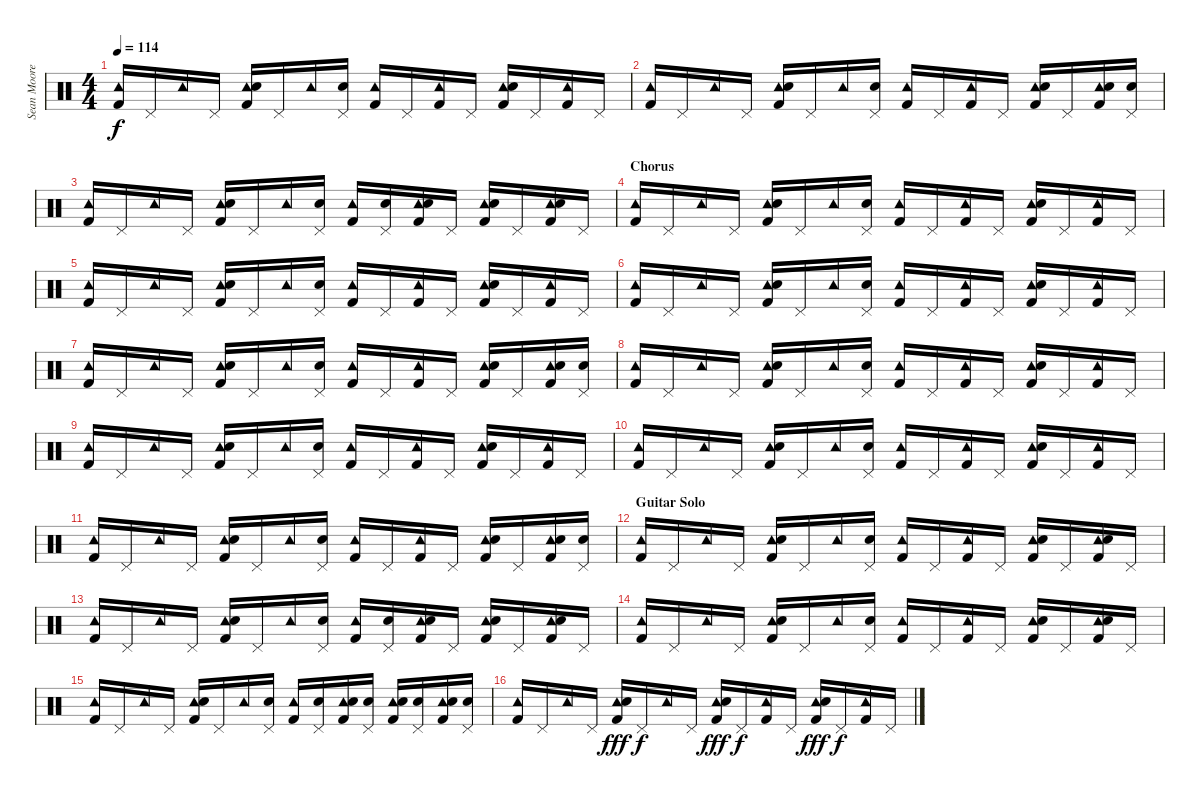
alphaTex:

\track ("Sean Moore" "Sean Moore") {instrument percussion}
\staff {score}
\articulation defaults
\ts (4 4)
\tempo 114
\clef neutral
\ks c
("Tambourine (hit)" "Kick (hit) 2").16{dy f} "Pedal Hi-Hat (hit)".16 "Tambourine (hit)".16 "Pedal Hi-Hat (hit)".16 ("Tambourine (hit)" "Snare (hit) 2" "Kick (hit) 2").16 "Pedal Hi-Hat (hit)".16 "Tambourine (hit)".16 ("Snare (hit) 2" "Pedal Hi-Hat (hit)").16 ("Tambourine (hit)" "Kick (hit) 2").16 "Pedal Hi-Hat (hit)".16 ("Tambourine (hit)" "Kick (hit) 2").16 "Pedal Hi-Hat (hit)".16 ("Tambourine (hit)" "Snare (hit) 2" "Kick (hit) 2").16 "Pedal Hi-Hat (hit)".16 ("Tambourine (hit)" "Kick (hit) 2").16 "Pedal Hi-Hat (hit)".16 |
("Tambourine (hit)" "Kick (hit) 2").16 "Pedal Hi-Hat (hit)".16 "Tambourine (hit)".16 "Pedal Hi-Hat (hit)".16 ("Tambourine (hit)" "Snare (hit) 2" "Kick (hit) 2").16 "Pedal Hi-Hat (hit)".16 "Tambourine (hit)".16 ("Snare (hit) 2" "Pedal Hi-Hat (hit)").16 ("Tambourine (hit)" "Kick (hit) 2").16 "Pedal Hi-Hat (hit)".16 ("Tambourine (hit)" "Kick (hit) 2").16 "Pedal Hi-Hat (hit)".16 ("Tambourine (hit)" "Snare (hit) 2" "Kick (hit) 2").16 "Pedal Hi-Hat (hit)".16 ("Tambourine (hit)" "Snare (hit) 2" "Kick (hit) 2").16 ("Snare (hit) 2" "Pedal Hi-Hat (hit)").16 |
("Tambourine (hit)" "Kick (hit) 2").16 "Pedal Hi-Hat (hit)".16 "Tambourine (hit)".16 "Pedal Hi-Hat (hit)".16 ("Tambourine (hit)" "Snare (hit) 2" "Kick (hit) 2").16 "Pedal Hi-Hat (hit)".16 "Tambourine (hit)".16 ("Snare (hit) 2" "Pedal Hi-Hat (hit)").16 ("Tambourine (hit)" "Kick (hit) 2").16 ("Snare (hit) 2" "Pedal Hi-Hat (hit)").16 ("Tambourine (hit)" "Snare (hit) 2" "Kick (hit) 2").16 "Pedal Hi-Hat (hit)".16 ("Tambourine (hit)" "Snare (hit) 2" "Kick (hit) 2").16 "Pedal Hi-Hat (hit)".16 ("Tambourine (hit)" "Snare (hit) 2" "Kick (hit) 2").16 "Pedal Hi-Hat (hit)".16 |
\section ("" "Chorus")
("Tambourine (hit)" "Kick (hit) 2").16 "Pedal Hi-Hat (hit)".16 "Tambourine (hit)".16 "Pedal Hi-Hat (hit)".16 ("Tambourine (hit)" "Snare (hit) 2" "Kick (hit) 2").16 "Pedal Hi-Hat (hit)".16 "Tambourine (hit)".16 ("Snare (hit) 2" "Pedal Hi-Hat (hit)").16 ("Tambourine (hit)" "Kick (hit) 2").16 "Pedal Hi-Hat (hit)".16 ("Tambourine (hit)" "Kick (hit) 2").16 "Pedal Hi-Hat (hit)".16 ("Tambourine (hit)" "Snare (hit) 2" "Kick (hit) 2").16 "Pedal Hi-Hat (hit)".16 ("Tambourine (hit)" "Kick (hit) 2").16 "Pedal Hi-Hat (hit)".16 |
("Tambourine (hit)" "Kick (hit) 2").16 "Pedal Hi-Hat (hit)".16 "Tambourine (hit)".16 "Pedal Hi-Hat (hit)".16 ("Tambourine (hit)" "Snare (hit) 2" "Kick (hit) 2").16 "Pedal Hi-Hat (hit)".16 "Tambourine (hit)".16 ("Snare (hit) 2" "Pedal Hi-Hat (hit)").16 ("Tambourine (hit)" "Kick (hit) 2").16 "Pedal Hi-Hat (hit)".16 ("Tambourine (hit)" "Kick (hit) 2").16 "Pedal Hi-Hat (hit)".16 ("Tambourine (hit)" "Snare (hit) 2" "Kick (hit) 2").16 "Pedal Hi-Hat (hit)".16 ("Tambourine (hit)" "Kick (hit) 2").16 "Pedal Hi-Hat (hit)".16 |
("Tambourine (hit)" "Kick (hit) 2").16 "Pedal Hi-Hat (hit)".16 "Tambourine (hit)".16 "Pedal Hi-Hat (hit)".16 ("Tambourine (hit)" "Snare (hit) 2" "Kick (hit) 2").16 "Pedal Hi-Hat (hit)".16 "Tambourine (hit)".16 ("Snare (hit) 2" "Pedal Hi-Hat (hit)").16 ("Tambourine (hit)" "Kick (hit) 2").16 "Pedal Hi-Hat (hit)".16 ("Tambourine (hit)" "Kick (hit) 2").16 "Pedal Hi-Hat (hit)".16 ("Tambourine (hit)" "Snare (hit) 2" "Kick (hit) 2").16 "Pedal Hi-Hat (hit)".16 ("Tambourine (hit)" "Kick (hit) 2").16 "Pedal Hi-Hat (hit)".16 |
("Tambourine (hit)" "Kick (hit) 2").16 "Pedal Hi-Hat (hit)".16 "Tambourine (hit)".16 "Pedal Hi-Hat (hit)".16 ("Tambourine (hit)" "Snare (hit) 2" "Kick (hit) 2").16 "Pedal Hi-Hat (hit)".16 "Tambourine (hit)".16 ("Snare (hit) 2" "Pedal Hi-Hat (hit)").16 ("Tambourine (hit)" "Kick (hit) 2").16 "Pedal Hi-Hat (hit)".16 ("Tambourine (hit)" "Kick (hit) 2").16 "Pedal Hi-Hat (hit)".16 ("Tambourine (hit)" "Snare (hit) 2" "Kick (hit) 2").16 "Pedal Hi-Hat (hit)".16 ("Tambourine (hit)" "Snare (hit) 2" "Kick (hit) 2").16 ("Snare (hit) 2" "Pedal Hi-Hat (hit)").16 |
("Tambourine (hit)" "Kick (hit) 2").16 "Pedal Hi-Hat (hit)".16 "Tambourine (hit)".16 "Pedal Hi-Hat (hit)".16 ("Tambourine (hit)" "Snare (hit) 2" "Kick (hit) 2").16 "Pedal Hi-Hat (hit)".16 "Tambourine (hit)".16 ("Snare (hit) 2" "Pedal Hi-Hat (hit)").16 ("Tambourine (hit)" "Kick (hit) 2").16 "Pedal Hi-Hat (hit)".16 ("Tambourine (hit)" "Kick (hit) 2").16 "Pedal Hi-Hat (hit)".16 ("Tambourine (hit)" "Snare (hit) 2" "Kick (hit) 2").16 "Pedal Hi-Hat (hit)".16 ("Tambourine (hit)" "Kick (hit) 2").16 "Pedal Hi-Hat (hit)".16 |
("Tambourine (hit)" "Kick (hit) 2").16 "Pedal Hi-Hat (hit)".16 "Tambourine (hit)".16 "Pedal Hi-Hat (hit)".16 ("Tambourine (hit)" "Snare (hit) 2" "Kick (hit) 2").16 "Pedal Hi-Hat (hit)".16 "Tambourine (hit)".16 ("Snare (hit) 2" "Pedal Hi-Hat (hit)").16 ("Tambourine (hit)" "Kick (hit) 2").16 "Pedal Hi-Hat (hit)".16 ("Tambourine (hit)" "Kick (hit) 2").16 "Pedal Hi-Hat (hit)".16 ("Tambourine (hit)" "Snare (hit) 2" "Kick (hit) 2").16 "Pedal Hi-Hat (hit)".16 ("Tambourine (hit)" "Kick (hit) 2").16 "Pedal Hi-Hat (hit)".16 |
("Tambourine (hit)" "Kick (hit) 2").16 "Pedal Hi-Hat (hit)".16 "Tambourine (hit)".16 "Pedal Hi-Hat (hit)".16 ("Tambourine (hit)" "Snare (hit) 2" "Kick (hit) 2").16 "Pedal Hi-Hat (hit)".16 "Tambourine (hit)".16 ("Snare (hit) 2" "Pedal Hi-Hat (hit)").16 ("Tambourine (hit)" "Kick (hit) 2").16 "Pedal Hi-Hat (hit)".16 ("Tambourine (hit)" "Kick (hit) 2").16 "Pedal Hi-Hat (hit)".16 ("Tambourine (hit)" "Snare (hit) 2" "Kick (hit) 2").16 "Pedal Hi-Hat (hit)".16 ("Tambourine (hit)" "Kick (hit) 2").16 "Pedal Hi-Hat (hit)".16 |
("Tambourine (hit)" "Kick (hit) 2").16 "Pedal Hi-Hat (hit)".16 "Tambourine (hit)".16 "Pedal Hi-Hat (hit)".16 ("Tambourine (hit)" "Snare (hit) 2" "Kick (hit) 2").16 "Pedal Hi-Hat (hit)".16 "Tambourine (hit)".16 ("Snare (hit) 2" "Pedal Hi-Hat (hit)").16 ("Tambourine (hit)" "Kick (hit) 2").16 "Pedal Hi-Hat (hit)".16 ("Tambourine (hit)" "Kick (hit) 2").16 "Pedal Hi-Hat (hit)".16 ("Tambourine (hit)" "Snare (hit) 2" "Kick (hit) 2").16 "Pedal Hi-Hat (hit)".16 ("Tambourine (hit)" "Snare (hit) 2" "Kick (hit) 2").16 ("Snare (hit) 2" "Pedal Hi-Hat (hit)").16 |
\section ("" "Guitar Solo")
("Tambourine (hit)" "Kick (hit) 2").16{volume 15} "Pedal Hi-Hat (hit)".16 "Tambourine (hit)".16 "Pedal Hi-Hat (hit)".16 ("Tambourine (hit)" "Snare (hit) 2" "Kick (hit) 2").16 "Pedal Hi-Hat (hit)".16 "Tambourine (hit)".16 ("Snare (hit) 2" "Pedal Hi-Hat (hit)").16 ("Tambourine (hit)" "Kick (hit) 2").16 "Pedal Hi-Hat (hit)".16 ("Tambourine (hit)" "Kick (hit) 2").16 "Pedal Hi-Hat (hit)".16 ("Tambourine (hit)" "Snare (hit) 2" "Kick (hit) 2").16 "Pedal Hi-Hat (hit)".16 ("Tambourine (hit)" "Snare (hit) 2" "Kick (hit) 2").16 "Pedal Hi-Hat (hit)".16 |
("Tambourine (hit)" "Kick (hit) 2").16 "Pedal Hi-Hat (hit)".16 "Tambourine (hit)".16 "Pedal Hi-Hat (hit)".16 ("Tambourine (hit)" "Snare (hit) 2" "Kick (hit) 2").16 "Pedal Hi-Hat (hit)".16 "Tambourine (hit)".16 ("Snare (hit) 2" "Pedal Hi-Hat (hit)").16 ("Tambourine (hit)" "Kick (hit) 2").16 ("Snare (hit) 2" "Pedal Hi-Hat (hit)").16 ("Tambourine (hit)" "Snare (hit) 2" "Kick (hit) 2").16 "Pedal Hi-Hat (hit)".16 ("Tambourine (hit)" "Snare (hit) 2" "Kick (hit) 2").16 "Pedal Hi-Hat (hit)".16 ("Tambourine (hit)" "Snare (hit) 2" "Kick (hit) 2").16 "Pedal Hi-Hat (hit)".16 |
("Tambourine (hit)" "Kick (hit) 2").16 "Pedal Hi-Hat (hit)".16 "Tambourine (hit)".16 "Pedal Hi-Hat (hit)".16 ("Tambourine (hit)" "Snare (hit) 2" "Kick (hit) 2").16 "Pedal Hi-Hat (hit)".16 "Tambourine (hit)".16 ("Snare (hit) 2" "Pedal Hi-Hat (hit)").16 ("Tambourine (hit)" "Kick (hit) 2").16 "Pedal Hi-Hat (hit)".16 ("Tambourine (hit)" "Kick (hit) 2").16 "Pedal Hi-Hat (hit)".16 ("Tambourine (hit)" "Snare (hit) 2" "Kick (hit) 2").16 "Pedal Hi-Hat (hit)".16 ("Tambourine (hit)" "Snare (hit) 2" "Kick (hit) 2").16 "Pedal Hi-Hat (hit)".16 |
("Tambourine (hit)" "Kick (hit) 2").16 "Pedal Hi-Hat (hit)".16 "Tambourine (hit)".16 "Pedal Hi-Hat (hit)".16 ("Tambourine (hit)" "Snare (hit) 2" "Kick (hit) 2").16 "Pedal Hi-Hat (hit)".16 "Tambourine (hit)".16 ("Snare (hit) 2" "Pedal Hi-Hat (hit)").16 ("Tambourine (hit)" "Kick (hit) 2").16 ("Electric Snare (hit)" "Pedal Hi-Hat (hit)").16 ("Tambourine (hit)" "Electric Snare (hit)" "Kick (hit) 2").16 ("Electric Snare (hit)" "Pedal Hi-Hat (hit)").16 ("Tambourine (hit)" "Snare (hit) 2" "Kick (hit) 2").16 ("Snare (hit) 2" "Pedal Hi-Hat (hit)").16 ("Tambourine (hit)" "Snare (hit) 2" "Kick (hit) 2").16 ("Snare (hit) 2" "Pedal Hi-Hat (hit)").16 |
("Tambourine (hit)" "Kick (hit) 2").16 "Pedal Hi-Hat (hit)".16 "Tambourine (hit)".16 "Pedal Hi-Hat (hit)".16 ("Tambourine (hit)" "Snare (hit) 2" "Kick (hit) 2").16{dy fff} "Pedal Hi-Hat (hit)".16{dy f} "Tambourine (hit)".16 "Pedal Hi-Hat (hit)".16 ("Tambourine (hit)" "Snare (hit) 2" "Kick (hit) 2").16{dy fff} "Pedal Hi-Hat (hit)".16{dy f} ("Tambourine (hit)" "Kick (hit) 2").16 "Pedal Hi-Hat (hit)".16 ("Tambourine (hit)" "Snare (hit) 2" "Kick (hit) 2").16{dy fff} "Pedal Hi-Hat (hit)".16{dy f} ("Tambourine (hit)" "Kick (hit) 2").16 "Pedal Hi-Hat (hit)".16
